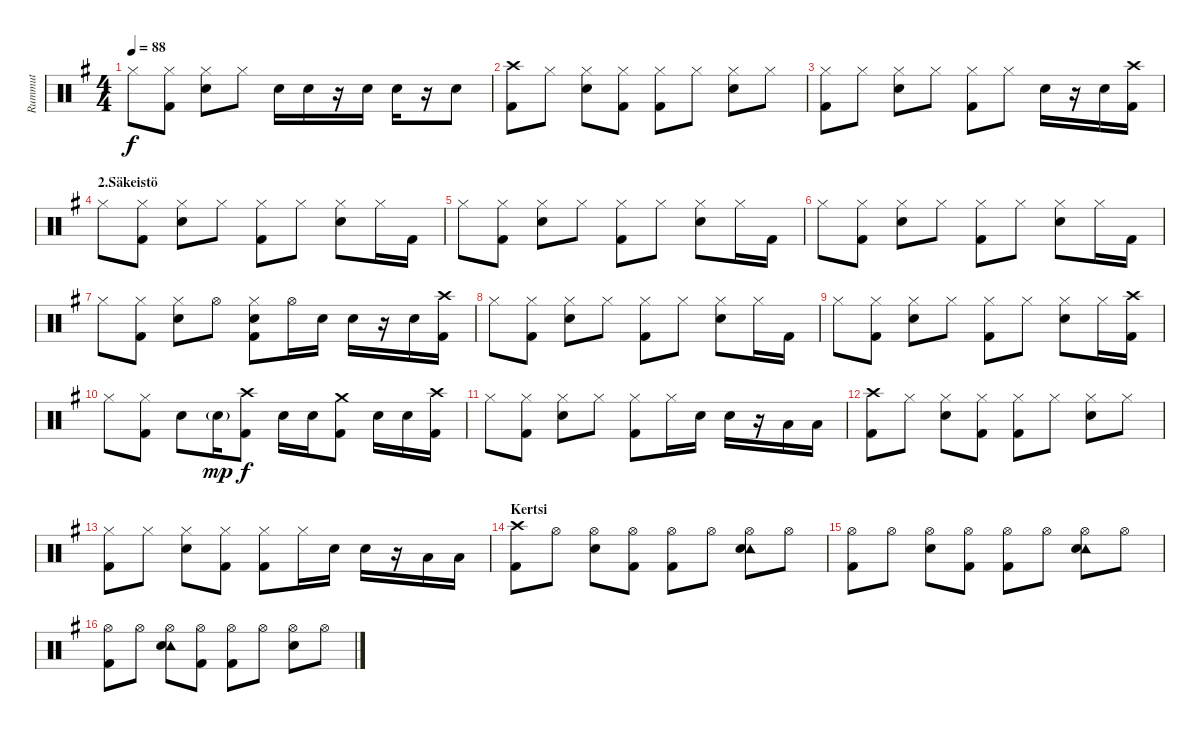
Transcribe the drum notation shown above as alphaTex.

\track ("Rummut" "Rummut") {instrument percussion}
\staff {score}
\articulation defaults
\ts (4 4)
\tempo 88
\clef neutral
\ks eminor "Hi-Hat (closed)".8{dy f}
("Hi-Hat (closed)" "Kick (hit) 2").8 ("Hi-Hat (closed)" "Snare (hit) 2").8 "Hi-Hat (closed)".8 "Snare (hit) 2".16 "Snare (hit) 2".16 r.16 "Snare (hit) 2".16 "Snare (hit) 2".16 r.16 "Snare (hit) 2".8 |
("Crash high (hit)" "Kick (hit) 2").8 "Hi-Hat (closed)".8 ("Hi-Hat (closed)" "Snare (hit) 2").8 ("Hi-Hat (closed)" "Kick (hit) 2").8 ("Hi-Hat (closed)" "Kick (hit) 2").8 "Hi-Hat (closed)".8 ("Hi-Hat (closed)" "Snare (hit) 2").8 "Hi-Hat (closed)".8 |
("Hi-Hat (closed)" "Kick (hit) 2").8 "Hi-Hat (closed)".8 ("Hi-Hat (closed)" "Snare (hit) 2").8 "Hi-Hat (closed)".8 ("Hi-Hat (closed)" "Kick (hit) 2").8 "Hi-Hat (closed)".8 "Snare (hit) 2".16 r.16 "Snare (hit) 2".16 ("Crash high (hit)" "Kick (hit) 2").16 |
\section ("" "2.Säkeistö")
"Hi-Hat (closed)".8 ("Hi-Hat (closed)" "Kick (hit) 2").8 ("Hi-Hat (closed)" "Snare (hit) 2").8 "Hi-Hat (closed)".8 ("Hi-Hat (closed)" "Kick (hit) 2").8 "Hi-Hat (closed)".8 ("Hi-Hat (closed)" "Snare (hit) 2").8 "Hi-Hat (closed)".16 "Kick (hit) 2".16 |
"Hi-Hat (closed)".8 ("Hi-Hat (closed)" "Kick (hit) 2").8 ("Hi-Hat (closed)" "Snare (hit) 2").8 "Hi-Hat (closed)".8 ("Hi-Hat (closed)" "Kick (hit) 2").8 "Hi-Hat (closed)".8 ("Hi-Hat (closed)" "Snare (hit) 2").8 "Hi-Hat (closed)".16 "Kick (hit) 2".16 |
"Hi-Hat (closed)".8 ("Hi-Hat (closed)" "Kick (hit) 2").8 ("Hi-Hat (closed)" "Snare (hit) 2").8 "Hi-Hat (closed)".8 ("Hi-Hat (closed)" "Kick (hit) 2").8 "Hi-Hat (closed)".8 ("Hi-Hat (closed)" "Snare (hit) 2").8 "Hi-Hat (closed)".16 "Kick (hit) 2".16 |
"Hi-Hat (closed)".8 ("Hi-Hat (closed)" "Kick (hit) 2").8 ("Hi-Hat (closed)" "Snare (hit) 2").8 "Hi-Hat (open)".8 ("Hi-Hat (closed)" "Snare (hit) 2" "Kick (hit) 2").8 "Hi-Hat (open)".16 "Snare (hit) 2".16 "Snare (hit) 2".16 r.16 "Snare (hit) 2".16 ("Crash high (hit)" "Kick (hit) 2").16 |
"Hi-Hat (closed)".8 ("Hi-Hat (closed)" "Kick (hit) 2").8 ("Hi-Hat (closed)" "Snare (hit) 2").8 "Hi-Hat (closed)".8 ("Hi-Hat (closed)" "Kick (hit) 2").8 "Hi-Hat (closed)".8 ("Hi-Hat (closed)" "Snare (hit) 2").8 "Hi-Hat (closed)".16 "Kick (hit) 2".16 |
"Hi-Hat (closed)".8 ("Hi-Hat (closed)" "Kick (hit) 2").8 ("Hi-Hat (closed)" "Snare (hit) 2").8 "Hi-Hat (closed)".8 ("Hi-Hat (closed)" "Kick (hit) 2").8 "Hi-Hat (closed)".8 ("Hi-Hat (closed)" "Snare (hit) 2").8 "Hi-Hat (closed)".16 ("Crash high (hit)" "Kick (hit) 2").16 |
"Hi-Hat (closed)".8 ("Hi-Hat (closed)" "Kick (hit) 2").8 "Snare (hit) 2".8 "Snare (hit) 2"{g}.16{dy mp} ("Crash high (hit)" "Kick (hit) 2").8{dy f} "Snare (hit) 2".16 "Snare (hit) 2".16 ("Crash medium (hit)" "Kick (hit) 2").8 "Snare (hit) 2".16 "Snare (hit) 2".16 ("Crash high (hit)" "Kick (hit) 2").16 |
"Hi-Hat (closed)".8 ("Hi-Hat (closed)" "Kick (hit) 2").8 ("Hi-Hat (closed)" "Snare (hit) 2").8 "Hi-Hat (closed)".8 ("Hi-Hat (closed)" "Kick (hit) 2").8 "Hi-Hat (closed)".16 "Snare (hit) 2".16 "Snare (hit) 2".16 r.16 "Low Tom (hit)".16 "Low Tom (hit)".16 |
("Crash high (hit)" "Kick (hit) 2").8 "Hi-Hat (closed)".8 ("Hi-Hat (closed)" "Snare (hit) 2").8 ("Hi-Hat (closed)" "Kick (hit) 2").8 ("Hi-Hat (closed)" "Kick (hit) 2").8 "Hi-Hat (closed)".8 ("Hi-Hat (closed)" "Snare (hit) 2").8 "Hi-Hat (closed)".8 |
("Hi-Hat (closed)" "Kick (hit) 2").8 "Hi-Hat (closed)".8 ("Hi-Hat (closed)" "Snare (hit) 2").8 ("Hi-Hat (closed)" "Kick (hit) 2").8 ("Hi-Hat (closed)" "Kick (hit) 2").8 "Hi-Hat (closed)".16 "Snare (hit) 2".16 "Snare (hit) 2".16 r.16 "Low Tom (hit)".16 "Low Tom (hit)".16 |
\section ("" "Kertsi")
("Crash high (hit)" "Kick (hit) 2").8 "Hi-Hat (open)".8 ("Hi-Hat (open)" "Snare (hit) 2").8 ("Hi-Hat (open)" "Kick (hit) 2").8 ("Hi-Hat (open)" "Kick (hit) 2").8 "Hi-Hat (open)".8 ("Hi-Hat (open)" "Tambourine (hit)" "Snare (hit) 2").8 "Hi-Hat (open)".8 |
("Hi-Hat (open)" "Kick (hit) 2").8 "Hi-Hat (open)".8 ("Hi-Hat (open)" "Snare (hit) 2").8 ("Hi-Hat (open)" "Kick (hit) 2").8 ("Hi-Hat (open)" "Kick (hit) 2").8 "Hi-Hat (open)".8 ("Hi-Hat (open)" "Tambourine (hit)" "Snare (hit) 2").8 "Hi-Hat (open)".8 |
("Hi-Hat (open)" "Kick (hit) 2").8 "Hi-Hat (open)".8 ("Hi-Hat (open)" "Tambourine (hit)" "Snare (hit) 2").8 ("Hi-Hat (open)" "Kick (hit) 2").8 ("Hi-Hat (open)" "Kick (hit) 2").8 "Hi-Hat (open)".8 ("Hi-Hat (open)" "Snare (hit) 2").8 "Hi-Hat (open)".8
